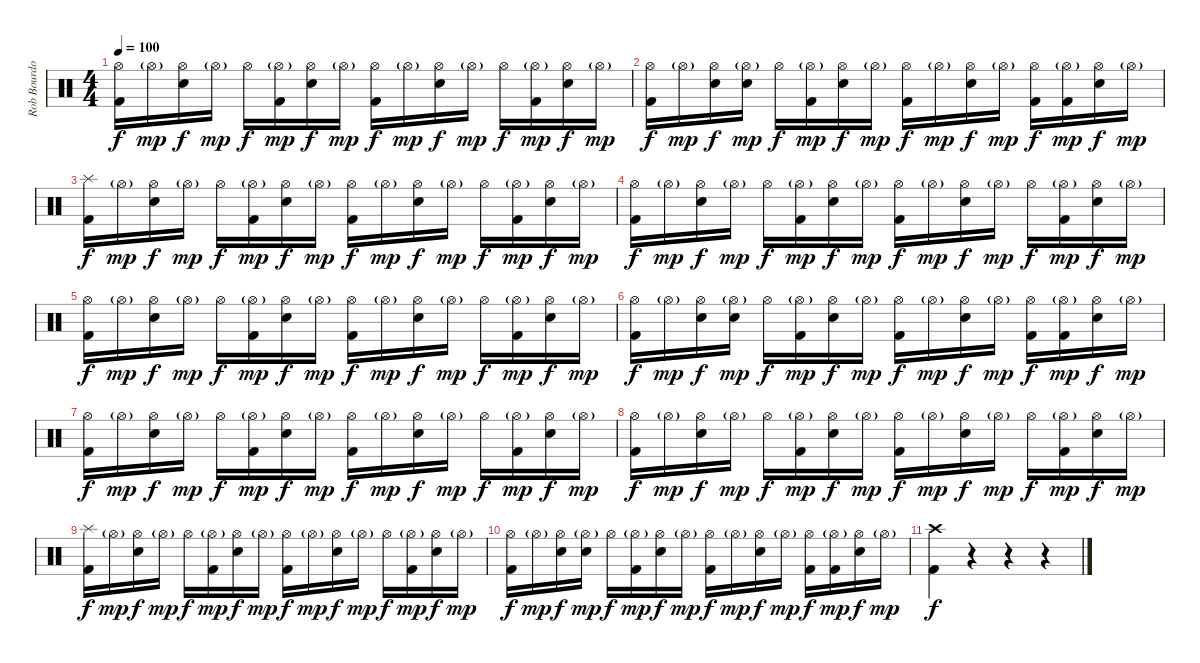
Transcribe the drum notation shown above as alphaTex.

\track ("Rob Bourdon (Drums)" "Rob Bourdo") {instrument percussion}
\staff {score}
\articulation defaults
\ts (4 4)
\tempo 100
\clef neutral
\ks c
("Hi-Hat (open)" "Kick (hit) 2").16{dy f} "Hi-Hat (open)"{g}.16{dy mp} ("Hi-Hat (open)" "Electric Snare (hit)").16{dy f} "Hi-Hat (open)"{g}.16{dy mp} "Hi-Hat (open)".16{dy f} ("Hi-Hat (open)"{g} "Kick (hit) 2").16{dy mp} ("Hi-Hat (open)" "Electric Snare (hit)").16{dy f} "Hi-Hat (open)"{g}.16{dy mp} ("Hi-Hat (open)" "Kick (hit) 2").16{dy f} "Hi-Hat (open)"{g}.16{dy mp} ("Hi-Hat (open)" "Electric Snare (hit)").16{dy f} "Hi-Hat (open)"{g}.16{dy mp} "Hi-Hat (open)".16{dy f} ("Hi-Hat (open)"{g} "Kick (hit) 2").16{dy mp} ("Hi-Hat (open)" "Electric Snare (hit)").16{dy f} "Hi-Hat (open)"{g}.16{dy mp} |
("Hi-Hat (open)" "Kick (hit) 2").16{dy f} "Hi-Hat (open)"{g}.16{dy mp} ("Hi-Hat (open)" "Electric Snare (hit)").16{dy f} ("Hi-Hat (open)"{g} "Electric Snare (hit)").16{dy mp} "Hi-Hat (open)".16{dy f} ("Hi-Hat (open)"{g} "Kick (hit) 2").16{dy mp} ("Hi-Hat (open)" "Electric Snare (hit)").16{dy f} "Hi-Hat (open)"{g}.16{dy mp} ("Hi-Hat (open)" "Kick (hit) 2").16{dy f} "Hi-Hat (open)"{g}.16{dy mp} ("Hi-Hat (open)" "Electric Snare (hit)").16{dy f} "Hi-Hat (open)"{g}.16{dy mp} ("Hi-Hat (open)" "Kick (hit) 2").16{dy f} ("Hi-Hat (open)"{g} "Kick (hit) 2").16{dy mp} ("Hi-Hat (open)" "Electric Snare (hit)").16{dy f} "Hi-Hat (open)"{g}.16{dy mp} |
("Splash (hit)" "Kick (hit) 2").16{dy f} "Hi-Hat (open)"{g}.16{dy mp} ("Hi-Hat (open)" "Electric Snare (hit)").16{dy f} "Hi-Hat (open)"{g}.16{dy mp} "Hi-Hat (open)".16{dy f} ("Hi-Hat (open)"{g} "Kick (hit) 2").16{dy mp} ("Hi-Hat (open)" "Electric Snare (hit)").16{dy f} "Hi-Hat (open)"{g}.16{dy mp} ("Hi-Hat (open)" "Kick (hit) 2").16{dy f} "Hi-Hat (open)"{g}.16{dy mp} ("Hi-Hat (open)" "Electric Snare (hit)").16{dy f} "Hi-Hat (open)"{g}.16{dy mp} "Hi-Hat (open)".16{dy f} ("Hi-Hat (open)"{g} "Kick (hit) 2").16{dy mp} ("Hi-Hat (open)" "Electric Snare (hit)").16{dy f} "Hi-Hat (open)"{g}.16{dy mp} |
("Hi-Hat (open)" "Kick (hit) 2").16{dy f} "Hi-Hat (open)"{g}.16{dy mp} ("Hi-Hat (open)" "Electric Snare (hit)").16{dy f} "Hi-Hat (open)"{g}.16{dy mp} "Hi-Hat (open)".16{dy f} ("Hi-Hat (open)"{g} "Kick (hit) 2").16{dy mp} ("Hi-Hat (open)" "Electric Snare (hit)").16{dy f} "Hi-Hat (open)"{g}.16{dy mp} ("Hi-Hat (open)" "Kick (hit) 2").16{dy f} "Hi-Hat (open)"{g}.16{dy mp} ("Hi-Hat (open)" "Electric Snare (hit)").16{dy f} "Hi-Hat (open)"{g}.16{dy mp} "Hi-Hat (open)".16{dy f} ("Hi-Hat (open)"{g} "Kick (hit) 2").16{dy mp} ("Hi-Hat (open)" "Electric Snare (hit)").16{dy f} "Hi-Hat (open)"{g}.16{dy mp} |
("Hi-Hat (open)" "Kick (hit) 2").16{dy f} "Hi-Hat (open)"{g}.16{dy mp} ("Hi-Hat (open)" "Electric Snare (hit)").16{dy f} "Hi-Hat (open)"{g}.16{dy mp} "Hi-Hat (open)".16{dy f} ("Hi-Hat (open)"{g} "Kick (hit) 2").16{dy mp} ("Hi-Hat (open)" "Electric Snare (hit)").16{dy f} "Hi-Hat (open)"{g}.16{dy mp} ("Hi-Hat (open)" "Kick (hit) 2").16{dy f} "Hi-Hat (open)"{g}.16{dy mp} ("Hi-Hat (open)" "Electric Snare (hit)").16{dy f} "Hi-Hat (open)"{g}.16{dy mp} "Hi-Hat (open)".16{dy f} ("Hi-Hat (open)"{g} "Kick (hit) 2").16{dy mp} ("Hi-Hat (open)" "Electric Snare (hit)").16{dy f} "Hi-Hat (open)"{g}.16{dy mp} |
("Hi-Hat (open)" "Kick (hit) 2").16{dy f} "Hi-Hat (open)"{g}.16{dy mp} ("Hi-Hat (open)" "Electric Snare (hit)").16{dy f} ("Hi-Hat (open)"{g} "Electric Snare (hit)").16{dy mp} "Hi-Hat (open)".16{dy f} ("Hi-Hat (open)"{g} "Kick (hit) 2").16{dy mp} ("Hi-Hat (open)" "Electric Snare (hit)").16{dy f} "Hi-Hat (open)"{g}.16{dy mp} ("Hi-Hat (open)" "Kick (hit) 2").16{dy f} "Hi-Hat (open)"{g}.16{dy mp} ("Hi-Hat (open)" "Electric Snare (hit)").16{dy f} "Hi-Hat (open)"{g}.16{dy mp} ("Hi-Hat (open)" "Kick (hit) 2").16{dy f} ("Hi-Hat (open)"{g} "Kick (hit) 2").16{dy mp} ("Hi-Hat (open)" "Electric Snare (hit)").16{dy f} "Hi-Hat (open)"{g}.16{dy mp} |
("Hi-Hat (open)" "Kick (hit) 2").16{dy f} "Hi-Hat (open)"{g}.16{dy mp} ("Hi-Hat (open)" "Electric Snare (hit)").16{dy f} "Hi-Hat (open)"{g}.16{dy mp} "Hi-Hat (open)".16{dy f} ("Hi-Hat (open)"{g} "Kick (hit) 2").16{dy mp} ("Hi-Hat (open)" "Electric Snare (hit)").16{dy f} "Hi-Hat (open)"{g}.16{dy mp} ("Hi-Hat (open)" "Kick (hit) 2").16{dy f} "Hi-Hat (open)"{g}.16{dy mp} ("Hi-Hat (open)" "Electric Snare (hit)").16{dy f} "Hi-Hat (open)"{g}.16{dy mp} "Hi-Hat (open)".16{dy f} ("Hi-Hat (open)"{g} "Kick (hit) 2").16{dy mp} ("Hi-Hat (open)" "Electric Snare (hit)").16{dy f} "Hi-Hat (open)"{g}.16{dy mp} |
("Hi-Hat (open)" "Kick (hit) 2").16{dy f} "Hi-Hat (open)"{g}.16{dy mp} ("Hi-Hat (open)" "Electric Snare (hit)").16{dy f} "Hi-Hat (open)"{g}.16{dy mp} "Hi-Hat (open)".16{dy f} ("Hi-Hat (open)"{g} "Kick (hit) 2").16{dy mp} ("Hi-Hat (open)" "Electric Snare (hit)").16{dy f} "Hi-Hat (open)"{g}.16{dy mp} ("Hi-Hat (open)" "Kick (hit) 2").16{dy f} "Hi-Hat (open)"{g}.16{dy mp} ("Hi-Hat (open)" "Electric Snare (hit)").16{dy f} "Hi-Hat (open)"{g}.16{dy mp} "Hi-Hat (open)".16{dy f} ("Hi-Hat (open)"{g} "Kick (hit) 2").16{dy mp} ("Hi-Hat (open)" "Electric Snare (hit)").16{dy f} "Hi-Hat (open)"{g}.16{dy mp} |
("Splash (hit)" "Kick (hit) 2").16{dy f} "Hi-Hat (open)"{g}.16{dy mp} ("Hi-Hat (open)" "Electric Snare (hit)").16{dy f} "Hi-Hat (open)"{g}.16{dy mp} "Hi-Hat (open)".16{dy f} ("Hi-Hat (open)"{g} "Kick (hit) 2").16{dy mp} ("Hi-Hat (open)" "Electric Snare (hit)").16{dy f} "Hi-Hat (open)"{g}.16{dy mp} ("Hi-Hat (open)" "Kick (hit) 2").16{dy f} "Hi-Hat (open)"{g}.16{dy mp} ("Hi-Hat (open)" "Electric Snare (hit)").16{dy f} "Hi-Hat (open)"{g}.16{dy mp} "Hi-Hat (open)".16{dy f} ("Hi-Hat (open)"{g} "Kick (hit) 2").16{dy mp} ("Hi-Hat (open)" "Electric Snare (hit)").16{dy f} "Hi-Hat (open)"{g}.16{dy mp} |
("Hi-Hat (open)" "Kick (hit) 2").16{dy f} "Hi-Hat (open)"{g}.16{dy mp} ("Hi-Hat (open)" "Electric Snare (hit)").16{dy f} ("Hi-Hat (open)"{g} "Electric Snare (hit)").16{dy mp} "Hi-Hat (open)".16{dy f} ("Hi-Hat (open)"{g} "Kick (hit) 2").16{dy mp} ("Hi-Hat (open)" "Electric Snare (hit)").16{dy f} "Hi-Hat (open)"{g}.16{dy mp} ("Hi-Hat (open)" "Kick (hit) 2").16{dy f} "Hi-Hat (open)"{g}.16{dy mp} ("Hi-Hat (open)" "Electric Snare (hit)").16{dy f} "Hi-Hat (open)"{g}.16{dy mp} ("Hi-Hat (open)" "Kick (hit) 2").16{dy f} ("Hi-Hat (open)"{g} "Kick (hit) 2").16{dy mp} ("Hi-Hat (open)" "Electric Snare (hit)").16{dy f} "Hi-Hat (open)"{g}.16{dy mp} |
("Crash high (hit)" "Kick (hit) 2").4{dy f} r.4 r.4 r.4
